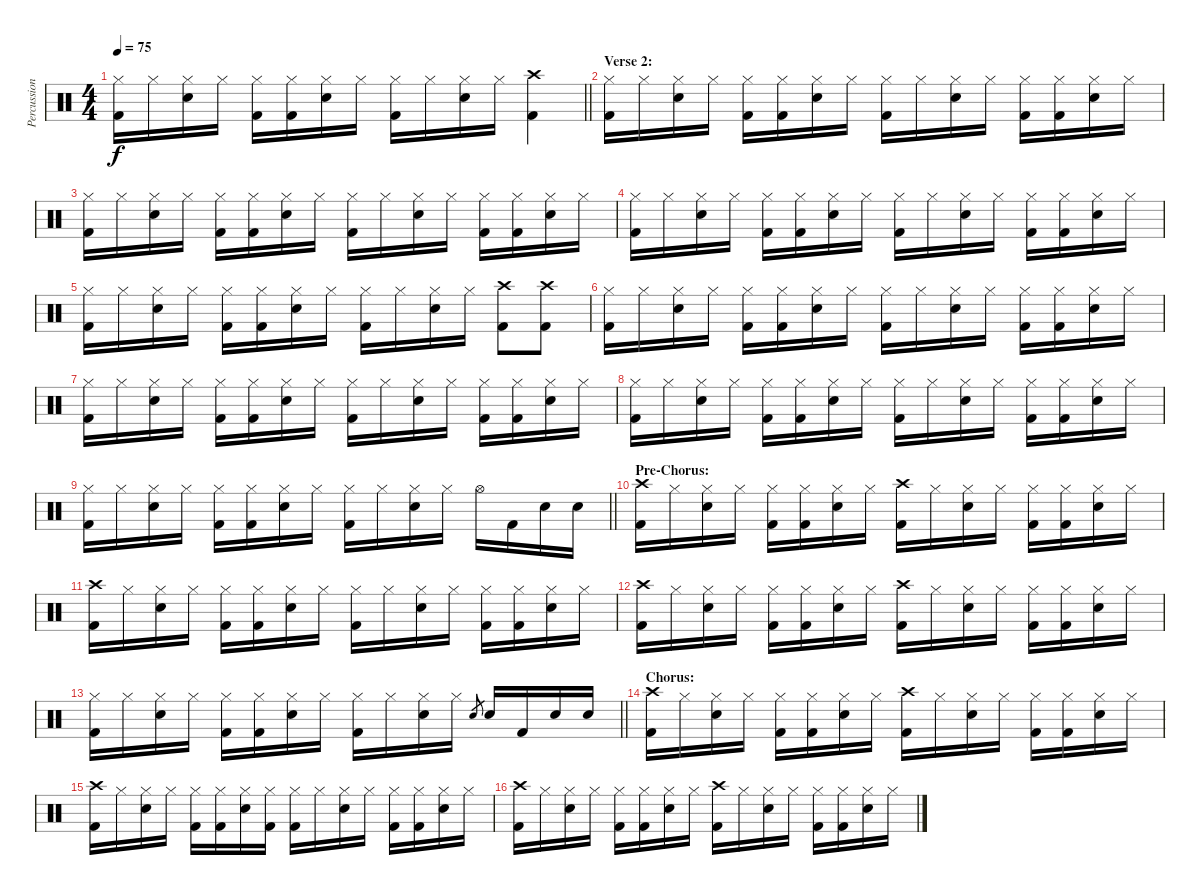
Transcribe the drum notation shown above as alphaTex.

\track ("Percussion" "Percussion") {instrument percussion}
\staff {score}
\articulation defaults
\ts (4 4)
\tempo 75
\clef neutral
\barLineRight lightlight
\ks c
("Hi-Hat (closed)" "Kick (hit) 2").16{dy f} "Hi-Hat (closed)".16 ("Hi-Hat (closed)" "Electric Snare (hit)").16 "Hi-Hat (closed)".16 ("Hi-Hat (closed)" "Kick (hit) 2").16 ("Hi-Hat (closed)" "Kick (hit) 2").16 ("Hi-Hat (closed)" "Electric Snare (hit)").16 "Hi-Hat (closed)".16 ("Hi-Hat (closed)" "Kick (hit) 2").16 "Hi-Hat (closed)".16 ("Hi-Hat (closed)" "Electric Snare (hit)").16 "Hi-Hat (closed)".16 ("Crash high (hit)" "Kick (hit) 2").4 |
\section ("" "Verse 2:")
("Hi-Hat (closed)" "Kick (hit) 2").16 "Hi-Hat (closed)".16 ("Hi-Hat (closed)" "Electric Snare (hit)").16 "Hi-Hat (closed)".16 ("Hi-Hat (closed)" "Kick (hit) 2").16 ("Hi-Hat (closed)" "Kick (hit) 2").16 ("Hi-Hat (closed)" "Electric Snare (hit)").16 "Hi-Hat (closed)".16 ("Hi-Hat (closed)" "Kick (hit) 2").16 "Hi-Hat (closed)".16 ("Hi-Hat (closed)" "Electric Snare (hit)").16 "Hi-Hat (closed)".16 ("Hi-Hat (closed)" "Kick (hit) 2").16 ("Hi-Hat (closed)" "Kick (hit) 2").16 ("Hi-Hat (closed)" "Electric Snare (hit)").16 "Hi-Hat (closed)".16 |
("Hi-Hat (closed)" "Kick (hit) 2").16 "Hi-Hat (closed)".16 ("Hi-Hat (closed)" "Electric Snare (hit)").16 "Hi-Hat (closed)".16 ("Hi-Hat (closed)" "Kick (hit) 2").16 ("Hi-Hat (closed)" "Kick (hit) 2").16 ("Hi-Hat (closed)" "Electric Snare (hit)").16 "Hi-Hat (closed)".16 ("Hi-Hat (closed)" "Kick (hit) 2").16 "Hi-Hat (closed)".16 ("Hi-Hat (closed)" "Electric Snare (hit)").16 "Hi-Hat (closed)".16 ("Hi-Hat (closed)" "Kick (hit) 2").16 ("Hi-Hat (closed)" "Kick (hit) 2").16 ("Hi-Hat (closed)" "Electric Snare (hit)").16 "Hi-Hat (closed)".16 |
("Hi-Hat (closed)" "Kick (hit) 2").16 "Hi-Hat (closed)".16 ("Hi-Hat (closed)" "Electric Snare (hit)").16 "Hi-Hat (closed)".16 ("Hi-Hat (closed)" "Kick (hit) 2").16 ("Hi-Hat (closed)" "Kick (hit) 2").16 ("Hi-Hat (closed)" "Electric Snare (hit)").16 "Hi-Hat (closed)".16 ("Hi-Hat (closed)" "Kick (hit) 2").16 "Hi-Hat (closed)".16 ("Hi-Hat (closed)" "Electric Snare (hit)").16 "Hi-Hat (closed)".16 ("Hi-Hat (closed)" "Kick (hit) 2").16 ("Hi-Hat (closed)" "Kick (hit) 2").16 ("Hi-Hat (closed)" "Electric Snare (hit)").16 "Hi-Hat (closed)".16 |
("Hi-Hat (closed)" "Kick (hit) 2").16 "Hi-Hat (closed)".16 ("Hi-Hat (closed)" "Electric Snare (hit)").16 "Hi-Hat (closed)".16 ("Hi-Hat (closed)" "Kick (hit) 2").16 ("Hi-Hat (closed)" "Kick (hit) 2").16 ("Hi-Hat (closed)" "Electric Snare (hit)").16 "Hi-Hat (closed)".16 ("Hi-Hat (closed)" "Kick (hit) 2").16 "Hi-Hat (closed)".16 ("Hi-Hat (closed)" "Electric Snare (hit)").16 "Hi-Hat (closed)".16 ("Crash high (hit)" "Kick (hit) 2").8 ("Crash high (hit)" "Kick (hit) 2").8 |
("Hi-Hat (closed)" "Kick (hit) 2").16 "Hi-Hat (closed)".16 ("Hi-Hat (closed)" "Electric Snare (hit)").16 "Hi-Hat (closed)".16 ("Hi-Hat (closed)" "Kick (hit) 2").16 ("Hi-Hat (closed)" "Kick (hit) 2").16 ("Hi-Hat (closed)" "Electric Snare (hit)").16 "Hi-Hat (closed)".16 ("Hi-Hat (closed)" "Kick (hit) 2").16 "Hi-Hat (closed)".16 ("Hi-Hat (closed)" "Electric Snare (hit)").16 "Hi-Hat (closed)".16 ("Hi-Hat (closed)" "Kick (hit) 2").16 ("Hi-Hat (closed)" "Kick (hit) 2").16 ("Hi-Hat (closed)" "Electric Snare (hit)").16 "Hi-Hat (closed)".16 |
("Hi-Hat (closed)" "Kick (hit) 2").16 "Hi-Hat (closed)".16 ("Hi-Hat (closed)" "Electric Snare (hit)").16 "Hi-Hat (closed)".16 ("Hi-Hat (closed)" "Kick (hit) 2").16 ("Hi-Hat (closed)" "Kick (hit) 2").16 ("Hi-Hat (closed)" "Electric Snare (hit)").16 "Hi-Hat (closed)".16 ("Hi-Hat (closed)" "Kick (hit) 2").16 "Hi-Hat (closed)".16 ("Hi-Hat (closed)" "Electric Snare (hit)").16 "Hi-Hat (closed)".16 ("Hi-Hat (closed)" "Kick (hit) 2").16 ("Hi-Hat (closed)" "Kick (hit) 2").16 ("Hi-Hat (closed)" "Electric Snare (hit)").16 "Hi-Hat (closed)".16 |
("Hi-Hat (closed)" "Kick (hit) 2").16 "Hi-Hat (closed)".16 ("Hi-Hat (closed)" "Electric Snare (hit)").16 "Hi-Hat (closed)".16 ("Hi-Hat (closed)" "Kick (hit) 2").16 ("Hi-Hat (closed)" "Kick (hit) 2").16 ("Hi-Hat (closed)" "Electric Snare (hit)").16 "Hi-Hat (closed)".16 ("Hi-Hat (closed)" "Kick (hit) 2").16 "Hi-Hat (closed)".16 ("Hi-Hat (closed)" "Electric Snare (hit)").16 "Hi-Hat (closed)".16 ("Hi-Hat (closed)" "Kick (hit) 2").16 ("Hi-Hat (closed)" "Kick (hit) 2").16 ("Hi-Hat (closed)" "Electric Snare (hit)").16 "Hi-Hat (closed)".16 |
\barLineRight lightlight
("Hi-Hat (closed)" "Kick (hit) 2").16 "Hi-Hat (closed)".16 ("Hi-Hat (closed)" "Electric Snare (hit)").16 "Hi-Hat (closed)".16 ("Hi-Hat (closed)" "Kick (hit) 2").16 ("Hi-Hat (closed)" "Kick (hit) 2").16 ("Hi-Hat (closed)" "Electric Snare (hit)").16 "Hi-Hat (closed)".16 ("Hi-Hat (closed)" "Kick (hit) 2").16 "Hi-Hat (closed)".16 ("Hi-Hat (closed)" "Electric Snare (hit)").16 "Hi-Hat (closed)".16 "Hi-Hat (open)".16 "Kick (hit) 2".16 "Electric Snare (hit)".16 "Electric Snare (hit)".16 |
\section ("" "Pre-Chorus:")
("Crash high (hit)" "Kick (hit) 2").16 "Hi-Hat (closed)".16 ("Hi-Hat (closed)" "Electric Snare (hit)").16 "Hi-Hat (closed)".16 ("Hi-Hat (closed)" "Kick (hit) 2").16 ("Hi-Hat (closed)" "Kick (hit) 2").16 ("Hi-Hat (closed)" "Electric Snare (hit)").16 "Hi-Hat (closed)".16 ("Crash high (hit)" "Kick (hit) 2").16 "Hi-Hat (closed)".16 ("Hi-Hat (closed)" "Electric Snare (hit)").16 "Hi-Hat (closed)".16 ("Hi-Hat (closed)" "Kick (hit) 2").16 ("Hi-Hat (closed)" "Kick (hit) 2").16 ("Hi-Hat (closed)" "Electric Snare (hit)").16 "Hi-Hat (closed)".16 |
("Crash high (hit)" "Kick (hit) 2").16 "Hi-Hat (closed)".16 ("Hi-Hat (closed)" "Electric Snare (hit)").16 "Hi-Hat (closed)".16 ("Hi-Hat (closed)" "Kick (hit) 2").16 ("Hi-Hat (closed)" "Kick (hit) 2").16 ("Hi-Hat (closed)" "Electric Snare (hit)").16 "Hi-Hat (closed)".16 ("Hi-Hat (closed)" "Kick (hit) 2").16 "Hi-Hat (closed)".16 ("Hi-Hat (closed)" "Electric Snare (hit)").16 "Hi-Hat (closed)".16 ("Hi-Hat (closed)" "Kick (hit) 2").16 ("Hi-Hat (closed)" "Kick (hit) 2").16 ("Hi-Hat (closed)" "Electric Snare (hit)").16 "Hi-Hat (closed)".16 |
("Crash high (hit)" "Kick (hit) 2").16 "Hi-Hat (closed)".16 ("Hi-Hat (closed)" "Electric Snare (hit)").16 "Hi-Hat (closed)".16 ("Hi-Hat (closed)" "Kick (hit) 2").16 ("Hi-Hat (closed)" "Kick (hit) 2").16 ("Hi-Hat (closed)" "Electric Snare (hit)").16 "Hi-Hat (closed)".16 ("Crash high (hit)" "Kick (hit) 2").16 "Hi-Hat (closed)".16 ("Hi-Hat (closed)" "Electric Snare (hit)").16 "Hi-Hat (closed)".16 ("Hi-Hat (closed)" "Kick (hit) 2").16 ("Hi-Hat (closed)" "Kick (hit) 2").16 ("Hi-Hat (closed)" "Electric Snare (hit)").16 "Hi-Hat (closed)".16 |
\barLineRight lightlight
("Hi-Hat (closed)" "Kick (hit) 2").16 "Hi-Hat (closed)".16 ("Hi-Hat (closed)" "Electric Snare (hit)").16 "Hi-Hat (closed)".16 ("Hi-Hat (closed)" "Kick (hit) 2").16 ("Hi-Hat (closed)" "Kick (hit) 2").16 ("Hi-Hat (closed)" "Electric Snare (hit)").16 "Hi-Hat (closed)".16 ("Hi-Hat (closed)" "Kick (hit) 2").16 "Hi-Hat (closed)".16 ("Hi-Hat (closed)" "Electric Snare (hit)").16 "Hi-Hat (closed)".16 "Electric Snare (hit)".8{gr} "Electric Snare (hit)".16 "Kick (hit) 2".16 "Electric Snare (hit)".16 "Electric Snare (hit)".16 |
\section ("" "Chorus:")
("Crash high (hit)" "Kick (hit) 2").16 "Hi-Hat (closed)".16 ("Hi-Hat (closed)" "Electric Snare (hit)").16 "Hi-Hat (closed)".16 ("Hi-Hat (closed)" "Kick (hit) 2").16 ("Hi-Hat (closed)" "Kick (hit) 2").16 ("Hi-Hat (closed)" "Electric Snare (hit)").16 "Hi-Hat (closed)".16 ("Crash high (hit)" "Kick (hit) 2").16 "Hi-Hat (closed)".16 ("Hi-Hat (closed)" "Electric Snare (hit)").16 "Hi-Hat (closed)".16 ("Hi-Hat (closed)" "Kick (hit) 2").16 ("Hi-Hat (closed)" "Kick (hit) 2").16 ("Hi-Hat (closed)" "Electric Snare (hit)").16 "Hi-Hat (closed)".16 |
("Crash high (hit)" "Kick (hit) 2").16 "Hi-Hat (closed)".16 ("Hi-Hat (closed)" "Electric Snare (hit)").16 "Hi-Hat (closed)".16 ("Hi-Hat (closed)" "Kick (hit) 2").16 ("Hi-Hat (closed)" "Kick (hit) 2").16 ("Hi-Hat (closed)" "Electric Snare (hit)").16 ("Hi-Hat (closed)" "Kick (hit) 2").16 ("Hi-Hat (closed)" "Kick (hit) 2").16 "Hi-Hat (closed)".16 ("Hi-Hat (closed)" "Electric Snare (hit)").16 "Hi-Hat (closed)".16 ("Hi-Hat (closed)" "Kick (hit) 2").16 ("Hi-Hat (closed)" "Kick (hit) 2").16 ("Hi-Hat (closed)" "Electric Snare (hit)").16 "Hi-Hat (closed)".16 |
("Crash high (hit)" "Kick (hit) 2").16 "Hi-Hat (closed)".16 ("Hi-Hat (closed)" "Electric Snare (hit)").16 "Hi-Hat (closed)".16 ("Hi-Hat (closed)" "Kick (hit) 2").16 ("Hi-Hat (closed)" "Kick (hit) 2").16 ("Hi-Hat (closed)" "Electric Snare (hit)").16 "Hi-Hat (closed)".16 ("Crash high (hit)" "Kick (hit) 2").16 "Hi-Hat (closed)".16 ("Hi-Hat (closed)" "Electric Snare (hit)").16 "Hi-Hat (closed)".16 ("Hi-Hat (closed)" "Kick (hit) 2").16 ("Hi-Hat (closed)" "Kick (hit) 2").16 ("Hi-Hat (closed)" "Electric Snare (hit)").16 "Hi-Hat (closed)".16
